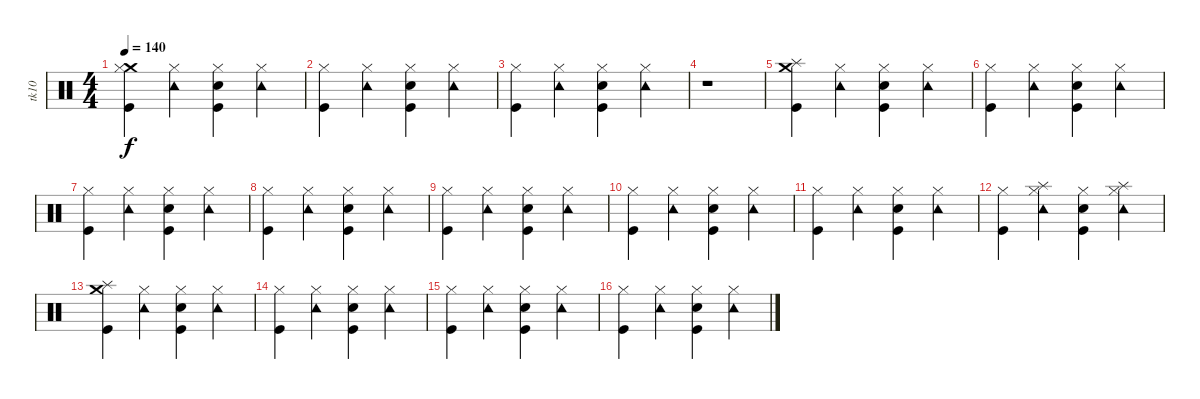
\track ("tk10" "tk10") {instrument percussion}
\staff {score}
\articulation defaults
\ts (4 4)
\tempo 140
\clef neutral
\ks c
("Crash medium (hit)" "Hi-Hat (closed)" "Kick (hit)").4{dy f} ("Tambourine (hit)" "Hi-Hat (closed)").4 ("Electric Snare (hit)" "Hi-Hat (closed)" "Kick (hit)").4 ("Hi-Hat (closed)" "Tambourine (hit)").4 |
("Hi-Hat (closed)" "Kick (hit)").4 ("Tambourine (hit)" "Hi-Hat (closed)").4 ("Electric Snare (hit)" "Hi-Hat (closed)" "Kick (hit)").4 ("Hi-Hat (closed)" "Tambourine (hit)").4 |
("Hi-Hat (closed)" "Kick (hit)").4 ("Tambourine (hit)" "Hi-Hat (closed)").4 ("Electric Snare (hit)" "Hi-Hat (closed)" "Kick (hit)").4 ("Hi-Hat (closed)" "Tambourine (hit)").4 |
r.1 |
("Splash (hit)" "Kick (hit)" "Crash medium (hit)").4 ("Hi-Hat (closed)" "Tambourine (hit)").4 ("Hi-Hat (closed)" "Electric Snare (hit)" "Kick (hit)").4 ("Hi-Hat (closed)" "Tambourine (hit)").4 |
("Hi-Hat (closed)" "Kick (hit)").4 ("Tambourine (hit)" "Hi-Hat (closed)").4 ("Electric Snare (hit)" "Hi-Hat (closed)" "Kick (hit)").4 ("Hi-Hat (closed)" "Tambourine (hit)").4 |
("Hi-Hat (closed)" "Kick (hit)").4 ("Tambourine (hit)" "Hi-Hat (closed)").4 ("Electric Snare (hit)" "Hi-Hat (closed)" "Kick (hit)").4 ("Hi-Hat (closed)" "Tambourine (hit)").4 |
("Hi-Hat (closed)" "Kick (hit)").4 ("Tambourine (hit)" "Hi-Hat (closed)").4 ("Electric Snare (hit)" "Hi-Hat (closed)" "Kick (hit)").4 ("Hi-Hat (closed)" "Tambourine (hit)").4 |
("Hi-Hat (closed)" "Kick (hit)").4 ("Tambourine (hit)" "Hi-Hat (closed)").4 ("Electric Snare (hit)" "Hi-Hat (closed)" "Kick (hit)").4 ("Hi-Hat (closed)" "Tambourine (hit)").4 |
("Hi-Hat (closed)" "Kick (hit)").4 ("Tambourine (hit)" "Hi-Hat (closed)").4 ("Electric Snare (hit)" "Hi-Hat (closed)" "Kick (hit)").4 ("Hi-Hat (closed)" "Tambourine (hit)").4 |
("Hi-Hat (closed)" "Kick (hit)").4 ("Tambourine (hit)" "Hi-Hat (closed)").4 ("Electric Snare (hit)" "Hi-Hat (closed)" "Kick (hit)").4 ("Hi-Hat (closed)" "Tambourine (hit)").4 |
("Hi-Hat (closed)" "Kick (hit)").4 ("Splash (hit)" "Tambourine (hit)" "Hi-Hat (closed)").4 ("Electric Snare (hit)" "Hi-Hat (closed)" "Kick (hit)").4 ("Splash (hit)" "Hi-Hat (closed)" "Tambourine (hit)").4 |
("Splash (hit)" "Kick (hit)" "Crash medium (hit)").4 ("Hi-Hat (closed)" "Tambourine (hit)").4 ("Electric Snare (hit)" "Hi-Hat (closed)" "Kick (hit)").4 ("Hi-Hat (closed)" "Tambourine (hit)").4 |
("Hi-Hat (closed)" "Kick (hit)").4 ("Tambourine (hit)" "Hi-Hat (closed)").4 ("Electric Snare (hit)" "Hi-Hat (closed)" "Kick (hit)").4 ("Hi-Hat (closed)" "Tambourine (hit)").4 |
("Hi-Hat (closed)" "Kick (hit)").4 ("Tambourine (hit)" "Hi-Hat (closed)").4 ("Electric Snare (hit)" "Hi-Hat (closed)" "Kick (hit)").4 ("Hi-Hat (closed)" "Tambourine (hit)").4 |
("Hi-Hat (closed)" "Kick (hit)").4 ("Tambourine (hit)" "Hi-Hat (closed)").4 ("Electric Snare (hit)" "Hi-Hat (closed)" "Kick (hit)").4 ("Hi-Hat (closed)" "Tambourine (hit)").4
